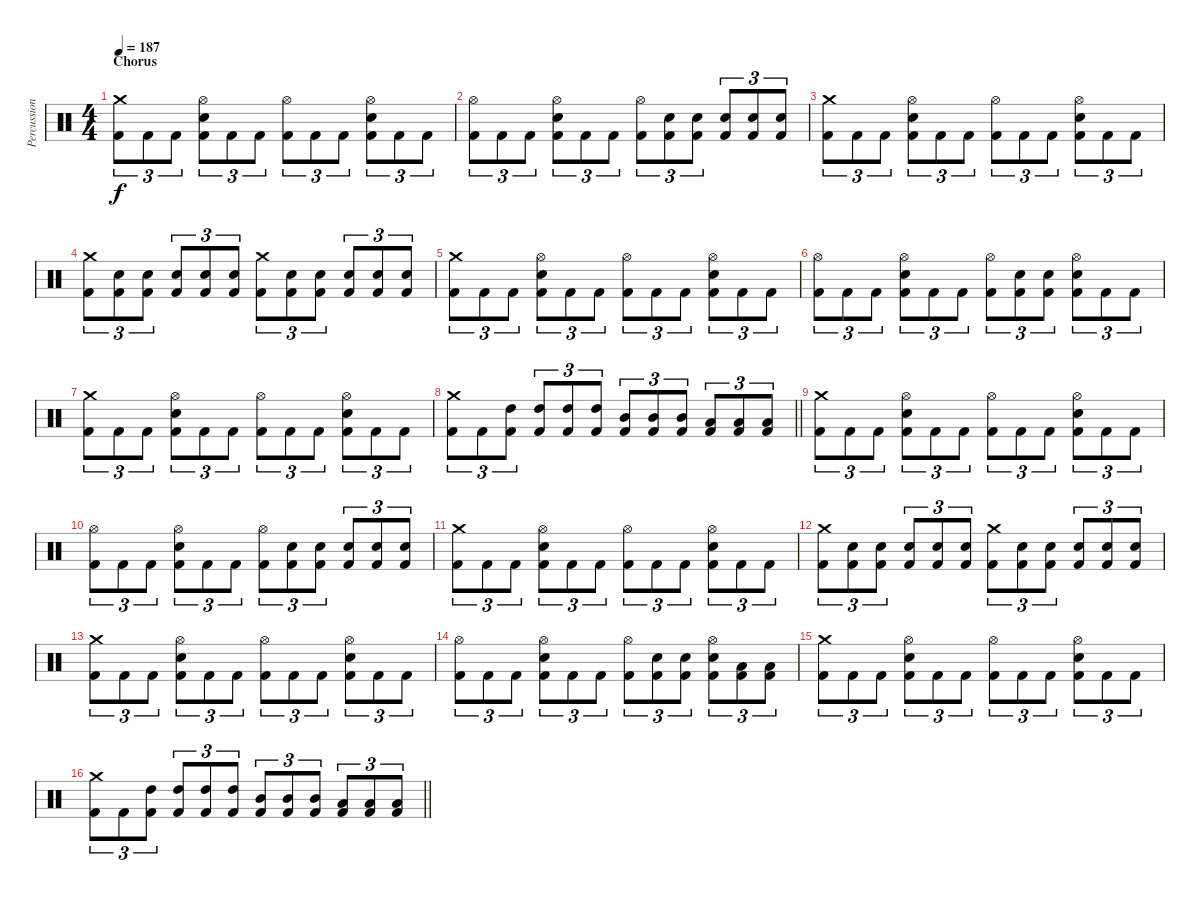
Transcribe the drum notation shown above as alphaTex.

\track ("Percussion" "Percussion") {instrument percussion}
\staff {score}
\articulation defaults
\ts (4 4)
\section ("" "Chorus")
\tempo 187
\clef neutral
\ks c
("Kick (hit) 2" "Crash medium (hit)").8{tu (3 2) dy f} "Kick (hit) 2".8{tu (3 2)} "Kick (hit) 2".8{tu (3 2)} ("Kick (hit) 2" "Snare (hit) 2" "Hi-Hat (open)").8{tu (3 2)} "Kick (hit) 2".8{tu (3 2)} "Kick (hit) 2".8{tu (3 2)} ("Kick (hit) 2" "Hi-Hat (open)").8{tu (3 2)} "Kick (hit) 2".8{tu (3 2)} "Kick (hit) 2".8{tu (3 2)} ("Kick (hit) 2" "Snare (hit) 2" "Hi-Hat (open)").8{tu (3 2)} "Kick (hit) 2".8{tu (3 2)} "Kick (hit) 2".8{tu (3 2)} |
("Kick (hit) 2" "Hi-Hat (open)").8{tu (3 2)} "Kick (hit) 2".8{tu (3 2)} "Kick (hit) 2".8{tu (3 2)} ("Kick (hit) 2" "Snare (hit) 2" "Hi-Hat (open)").8{tu (3 2)} "Kick (hit) 2".8{tu (3 2)} "Kick (hit) 2".8{tu (3 2)} ("Kick (hit) 2" "Hi-Hat (open)").8{tu (3 2)} ("Kick (hit) 2" "Snare (hit) 2").8{tu (3 2)} ("Kick (hit) 2" "Snare (hit) 2").8{tu (3 2)} ("Kick (hit) 2" "Snare (hit) 2").8{tu (3 2)} ("Kick (hit) 2" "Snare (hit) 2").8{tu (3 2)} ("Kick (hit) 2" "Snare (hit) 2").8{tu (3 2)} |
("Kick (hit) 2" "Crash medium (hit)").8{tu (3 2)} "Kick (hit) 2".8{tu (3 2)} "Kick (hit) 2".8{tu (3 2)} ("Kick (hit) 2" "Snare (hit) 2" "Hi-Hat (open)").8{tu (3 2)} "Kick (hit) 2".8{tu (3 2)} "Kick (hit) 2".8{tu (3 2)} ("Kick (hit) 2" "Hi-Hat (open)").8{tu (3 2)} "Kick (hit) 2".8{tu (3 2)} "Kick (hit) 2".8{tu (3 2)} ("Kick (hit) 2" "Snare (hit) 2" "Hi-Hat (open)").8{tu (3 2)} "Kick (hit) 2".8{tu (3 2)} "Kick (hit) 2".8{tu (3 2)} |
("Kick (hit) 2" "Crash medium (hit)").8{tu (3 2)} ("Kick (hit) 2" "Snare (hit) 2").8{tu (3 2)} ("Kick (hit) 2" "Snare (hit) 2").8{tu (3 2)} ("Kick (hit) 2" "Snare (hit) 2").8{tu (3 2)} ("Kick (hit) 2" "Snare (hit) 2").8{tu (3 2)} ("Kick (hit) 2" "Snare (hit) 2").8{tu (3 2)} ("Kick (hit) 2" "Crash medium (hit)").8{tu (3 2)} ("Kick (hit) 2" "Snare (hit) 2").8{tu (3 2)} ("Kick (hit) 2" "Snare (hit) 2").8{tu (3 2)} ("Kick (hit) 2" "Snare (hit) 2").8{tu (3 2)} ("Kick (hit) 2" "Snare (hit) 2").8{tu (3 2)} ("Kick (hit) 2" "Snare (hit) 2").8{tu (3 2)} |
("Kick (hit) 2" "Crash medium (hit)").8{tu (3 2)} "Kick (hit) 2".8{tu (3 2)} "Kick (hit) 2".8{tu (3 2)} ("Kick (hit) 2" "Snare (hit) 2" "Hi-Hat (open)").8{tu (3 2)} "Kick (hit) 2".8{tu (3 2)} "Kick (hit) 2".8{tu (3 2)} ("Kick (hit) 2" "Hi-Hat (open)").8{tu (3 2)} "Kick (hit) 2".8{tu (3 2)} "Kick (hit) 2".8{tu (3 2)} ("Kick (hit) 2" "Snare (hit) 2" "Hi-Hat (open)").8{tu (3 2)} "Kick (hit) 2".8{tu (3 2)} "Kick (hit) 2".8{tu (3 2)} |
("Kick (hit) 2" "Hi-Hat (open)").8{tu (3 2)} "Kick (hit) 2".8{tu (3 2)} "Kick (hit) 2".8{tu (3 2)} ("Kick (hit) 2" "Snare (hit) 2" "Hi-Hat (open)").8{tu (3 2)} "Kick (hit) 2".8{tu (3 2)} "Kick (hit) 2".8{tu (3 2)} ("Kick (hit) 2" "Hi-Hat (open)").8{tu (3 2)} ("Kick (hit) 2" "Snare (hit) 2").8{tu (3 2)} ("Kick (hit) 2" "Snare (hit) 2").8{tu (3 2)} ("Kick (hit) 2" "Snare (hit) 2" "Hi-Hat (open)").8{tu (3 2)} "Kick (hit) 2".8{tu (3 2)} "Kick (hit) 2".8{tu (3 2)} |
("Kick (hit) 2" "Crash medium (hit)").8{tu (3 2)} "Kick (hit) 2".8{tu (3 2)} "Kick (hit) 2".8{tu (3 2)} ("Kick (hit) 2" "Snare (hit) 2" "Hi-Hat (open)").8{tu (3 2)} "Kick (hit) 2".8{tu (3 2)} "Kick (hit) 2".8{tu (3 2)} ("Kick (hit) 2" "Hi-Hat (open)").8{tu (3 2)} "Kick (hit) 2".8{tu (3 2)} "Kick (hit) 2".8{tu (3 2)} ("Kick (hit) 2" "Snare (hit) 2" "Hi-Hat (open)").8{tu (3 2)} "Kick (hit) 2".8{tu (3 2)} "Kick (hit) 2".8{tu (3 2)} |
\barLineRight lightlight
("Kick (hit) 2" "Crash medium (hit)").8{tu (3 2)} "Kick (hit) 2".8{tu (3 2)} ("Kick (hit) 2" "High Tom (hit)").8{tu (3 2)} ("Kick (hit) 2" "High Tom (hit)").8{tu (3 2)} ("Kick (hit) 2" "High Tom (hit)").8{tu (3 2)} ("Kick (hit) 2" "High Tom (hit)").8{tu (3 2)} ("Kick (hit) 2" "Mid Tom (hit)").8{tu (3 2)} ("Kick (hit) 2" "Mid Tom (hit)").8{tu (3 2)} ("Kick (hit) 2" "Mid Tom (hit)").8{tu (3 2)} ("Kick (hit) 2" "Low Tom (hit)").8{tu (3 2)} ("Kick (hit) 2" "Low Tom (hit)").8{tu (3 2)} ("Kick (hit) 2" "Low Tom (hit)").8{tu (3 2)} |
\section ("" "")
("Kick (hit) 2" "Crash medium (hit)").8{tu (3 2)} "Kick (hit) 2".8{tu (3 2)} "Kick (hit) 2".8{tu (3 2)} ("Kick (hit) 2" "Snare (hit) 2" "Hi-Hat (open)").8{tu (3 2)} "Kick (hit) 2".8{tu (3 2)} "Kick (hit) 2".8{tu (3 2)} ("Kick (hit) 2" "Hi-Hat (open)").8{tu (3 2)} "Kick (hit) 2".8{tu (3 2)} "Kick (hit) 2".8{tu (3 2)} ("Kick (hit) 2" "Snare (hit) 2" "Hi-Hat (open)").8{tu (3 2)} "Kick (hit) 2".8{tu (3 2)} "Kick (hit) 2".8{tu (3 2)} |
("Kick (hit) 2" "Hi-Hat (open)").8{tu (3 2)} "Kick (hit) 2".8{tu (3 2)} "Kick (hit) 2".8{tu (3 2)} ("Kick (hit) 2" "Snare (hit) 2" "Hi-Hat (open)").8{tu (3 2)} "Kick (hit) 2".8{tu (3 2)} "Kick (hit) 2".8{tu (3 2)} ("Kick (hit) 2" "Hi-Hat (open)").8{tu (3 2)} ("Kick (hit) 2" "Snare (hit) 2").8{tu (3 2)} ("Kick (hit) 2" "Snare (hit) 2").8{tu (3 2)} ("Kick (hit) 2" "Snare (hit) 2").8{tu (3 2)} ("Kick (hit) 2" "Snare (hit) 2").8{tu (3 2)} ("Kick (hit) 2" "Snare (hit) 2").8{tu (3 2)} |
("Kick (hit) 2" "Crash medium (hit)").8{tu (3 2)} "Kick (hit) 2".8{tu (3 2)} "Kick (hit) 2".8{tu (3 2)} ("Kick (hit) 2" "Snare (hit) 2" "Hi-Hat (open)").8{tu (3 2)} "Kick (hit) 2".8{tu (3 2)} "Kick (hit) 2".8{tu (3 2)} ("Kick (hit) 2" "Hi-Hat (open)").8{tu (3 2)} "Kick (hit) 2".8{tu (3 2)} "Kick (hit) 2".8{tu (3 2)} ("Kick (hit) 2" "Snare (hit) 2" "Hi-Hat (open)").8{tu (3 2)} "Kick (hit) 2".8{tu (3 2)} "Kick (hit) 2".8{tu (3 2)} |
("Kick (hit) 2" "Crash medium (hit)").8{tu (3 2)} ("Kick (hit) 2" "Snare (hit) 2").8{tu (3 2)} ("Kick (hit) 2" "Snare (hit) 2").8{tu (3 2)} ("Kick (hit) 2" "Snare (hit) 2").8{tu (3 2)} ("Kick (hit) 2" "Snare (hit) 2").8{tu (3 2)} ("Kick (hit) 2" "Snare (hit) 2").8{tu (3 2)} ("Kick (hit) 2" "Crash medium (hit)").8{tu (3 2)} ("Kick (hit) 2" "Snare (hit) 2").8{tu (3 2)} ("Kick (hit) 2" "Snare (hit) 2").8{tu (3 2)} ("Kick (hit) 2" "Snare (hit) 2").8{tu (3 2)} ("Kick (hit) 2" "Snare (hit) 2").8{tu (3 2)} ("Kick (hit) 2" "Snare (hit) 2").8{tu (3 2)} |
("Kick (hit) 2" "Crash medium (hit)").8{tu (3 2)} "Kick (hit) 2".8{tu (3 2)} "Kick (hit) 2".8{tu (3 2)} ("Kick (hit) 2" "Snare (hit) 2" "Hi-Hat (open)").8{tu (3 2)} "Kick (hit) 2".8{tu (3 2)} "Kick (hit) 2".8{tu (3 2)} ("Kick (hit) 2" "Hi-Hat (open)").8{tu (3 2)} "Kick (hit) 2".8{tu (3 2)} "Kick (hit) 2".8{tu (3 2)} ("Kick (hit) 2" "Snare (hit) 2" "Hi-Hat (open)").8{tu (3 2)} "Kick (hit) 2".8{tu (3 2)} "Kick (hit) 2".8{tu (3 2)} |
("Kick (hit) 2" "Hi-Hat (open)").8{tu (3 2)} "Kick (hit) 2".8{tu (3 2)} "Kick (hit) 2".8{tu (3 2)} ("Kick (hit) 2" "Snare (hit) 2" "Hi-Hat (open)").8{tu (3 2)} "Kick (hit) 2".8{tu (3 2)} "Kick (hit) 2".8{tu (3 2)} ("Kick (hit) 2" "Hi-Hat (open)").8{tu (3 2)} ("Kick (hit) 2" "Snare (hit) 2").8{tu (3 2)} ("Kick (hit) 2" "Snare (hit) 2").8{tu (3 2)} ("Kick (hit) 2" "Snare (hit) 2" "Hi-Hat (open)").8{tu (3 2)} ("Kick (hit) 2" "Low Floor Tom (hit)").8{tu (3 2)} ("Kick (hit) 2" "Low Floor Tom (hit)").8{tu (3 2)} |
("Kick (hit) 2" "Crash medium (hit)").8{tu (3 2)} "Kick (hit) 2".8{tu (3 2)} "Kick (hit) 2".8{tu (3 2)} ("Kick (hit) 2" "Snare (hit) 2" "Hi-Hat (open)").8{tu (3 2)} "Kick (hit) 2".8{tu (3 2)} "Kick (hit) 2".8{tu (3 2)} ("Kick (hit) 2" "Hi-Hat (open)").8{tu (3 2)} "Kick (hit) 2".8{tu (3 2)} "Kick (hit) 2".8{tu (3 2)} ("Kick (hit) 2" "Snare (hit) 2" "Hi-Hat (open)").8{tu (3 2)} "Kick (hit) 2".8{tu (3 2)} "Kick (hit) 2".8{tu (3 2)} |
\barLineRight lightlight
("Kick (hit) 2" "Crash medium (hit)").8{tu (3 2)} "Kick (hit) 2".8{tu (3 2)} ("Kick (hit) 2" "High Tom (hit)").8{tu (3 2)} ("Kick (hit) 2" "High Tom (hit)").8{tu (3 2)} ("Kick (hit) 2" "High Tom (hit)").8{tu (3 2)} ("Kick (hit) 2" "High Tom (hit)").8{tu (3 2)} ("Kick (hit) 2" "Mid Tom (hit)").8{tu (3 2)} ("Kick (hit) 2" "Mid Tom (hit)").8{tu (3 2)} ("Kick (hit) 2" "Mid Tom (hit)").8{tu (3 2)} ("Kick (hit) 2" "Low Tom (hit)").8{tu (3 2)} ("Kick (hit) 2" "Low Tom (hit)").8{tu (3 2)} ("Kick (hit) 2" "Low Tom (hit)").8{tu (3 2)}
